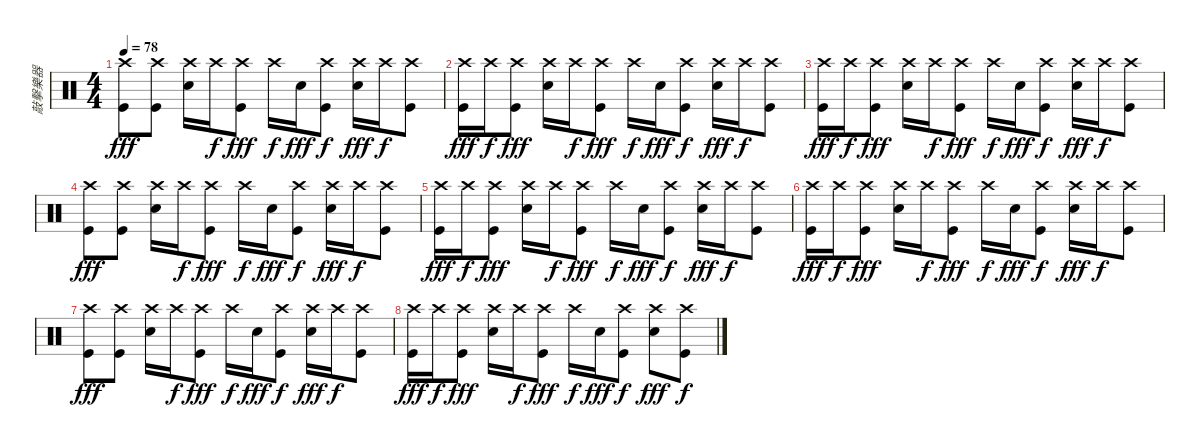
\track ("敲擊樂器" "敲擊樂器") {instrument percussion}
\staff {score}
\articulation defaults
\ts (4 4)
\tempo 78
\clef neutral
\ks c
("Crash high (hit)" "Kick (hit)").8{dy fff} ("Crash high (hit)" "Kick (hit)").8 ("Snare (hit) 2" "Crash high (hit)").16 "Crash high (hit)".16{dy f} ("Crash high (hit)" "Kick (hit)").8{dy fff} "Crash high (hit)".16{dy f} "Snare (hit) 2".16{dy fff} ("Crash high (hit)" "Kick (hit)").8{dy f} ("Snare (hit) 2" "Crash high (hit)").16{dy fff} "Crash high (hit)".16{dy f} ("Crash high (hit)" "Kick (hit)").8 |
("Crash high (hit)" "Kick (hit)").16{dy fff} "Crash high (hit)".16{dy f} ("Crash high (hit)" "Kick (hit)").8{dy fff} ("Snare (hit) 2" "Crash high (hit)").16 "Crash high (hit)".16{dy f} ("Crash high (hit)" "Kick (hit)").8{dy fff} "Crash high (hit)".16{dy f} "Snare (hit) 2".16{dy fff} ("Crash high (hit)" "Kick (hit)").8{dy f} ("Snare (hit) 2" "Crash high (hit)").16{dy fff} "Crash high (hit)".16{dy f} ("Crash high (hit)" "Kick (hit)").8 |
("Crash high (hit)" "Kick (hit)").16{dy fff} "Crash high (hit)".16{dy f} ("Crash high (hit)" "Kick (hit)").8{dy fff} ("Snare (hit) 2" "Crash high (hit)").16 "Crash high (hit)".16{dy f} ("Crash high (hit)" "Kick (hit)").8{dy fff} "Crash high (hit)".16{dy f} "Snare (hit) 2".16{dy fff} ("Crash high (hit)" "Kick (hit)").8{dy f} ("Snare (hit) 2" "Crash high (hit)").16{dy fff} "Crash high (hit)".16{dy f} ("Crash high (hit)" "Kick (hit)").8 |
("Crash high (hit)" "Kick (hit)").8{dy fff} ("Crash high (hit)" "Kick (hit)").8 ("Snare (hit) 2" "Crash high (hit)").16 "Crash high (hit)".16{dy f} ("Crash high (hit)" "Kick (hit)").8{dy fff} "Crash high (hit)".16{dy f} "Snare (hit) 2".16{dy fff} ("Crash high (hit)" "Kick (hit)").8{dy f} ("Snare (hit) 2" "Crash high (hit)").16{dy fff} "Crash high (hit)".16{dy f} ("Crash high (hit)" "Kick (hit)").8 |
("Crash high (hit)" "Kick (hit)").16{dy fff} "Crash high (hit)".16{dy f} ("Crash high (hit)" "Kick (hit)").8{dy fff} ("Snare (hit) 2" "Crash high (hit)").16 "Crash high (hit)".16{dy f} ("Crash high (hit)" "Kick (hit)").8{dy fff} "Crash high (hit)".16{dy f} "Snare (hit) 2".16{dy fff} ("Crash high (hit)" "Kick (hit)").8{dy f} ("Snare (hit) 2" "Crash high (hit)").16{dy fff} "Crash high (hit)".16{dy f} ("Crash high (hit)" "Kick (hit)").8 |
("Crash high (hit)" "Kick (hit)").16{dy fff} "Crash high (hit)".16{dy f} ("Crash high (hit)" "Kick (hit)").8{dy fff} ("Snare (hit) 2" "Crash high (hit)").16 "Crash high (hit)".16{dy f} ("Crash high (hit)" "Kick (hit)").8{dy fff} "Crash high (hit)".16{dy f} "Snare (hit) 2".16{dy fff} ("Crash high (hit)" "Kick (hit)").8{dy f} ("Snare (hit) 2" "Crash high (hit)").16{dy fff} "Crash high (hit)".16{dy f} ("Crash high (hit)" "Kick (hit)").8 |
("Crash high (hit)" "Kick (hit)").8{dy fff} ("Crash high (hit)" "Kick (hit)").8 ("Snare (hit) 2" "Crash high (hit)").16 "Crash high (hit)".16{dy f} ("Crash high (hit)" "Kick (hit)").8{dy fff} "Crash high (hit)".16{dy f} "Snare (hit) 2".16{dy fff} ("Crash high (hit)" "Kick (hit)").8{dy f} ("Snare (hit) 2" "Crash high (hit)").16{dy fff} "Crash high (hit)".16{dy f} ("Crash high (hit)" "Kick (hit)").8 |
("Crash high (hit)" "Kick (hit)").16{dy fff} "Crash high (hit)".16{dy f} ("Crash high (hit)" "Kick (hit)").8{dy fff} ("Snare (hit) 2" "Crash high (hit)").16 "Crash high (hit)".16{dy f} ("Crash high (hit)" "Kick (hit)").8{dy fff} "Crash high (hit)".16{dy f} "Snare (hit) 2".16{dy fff} ("Crash high (hit)" "Kick (hit)").8{dy f} ("Snare (hit) 2" "Crash high (hit)").8{dy fff} ("Crash high (hit)" "Kick (hit)").8{dy f}
